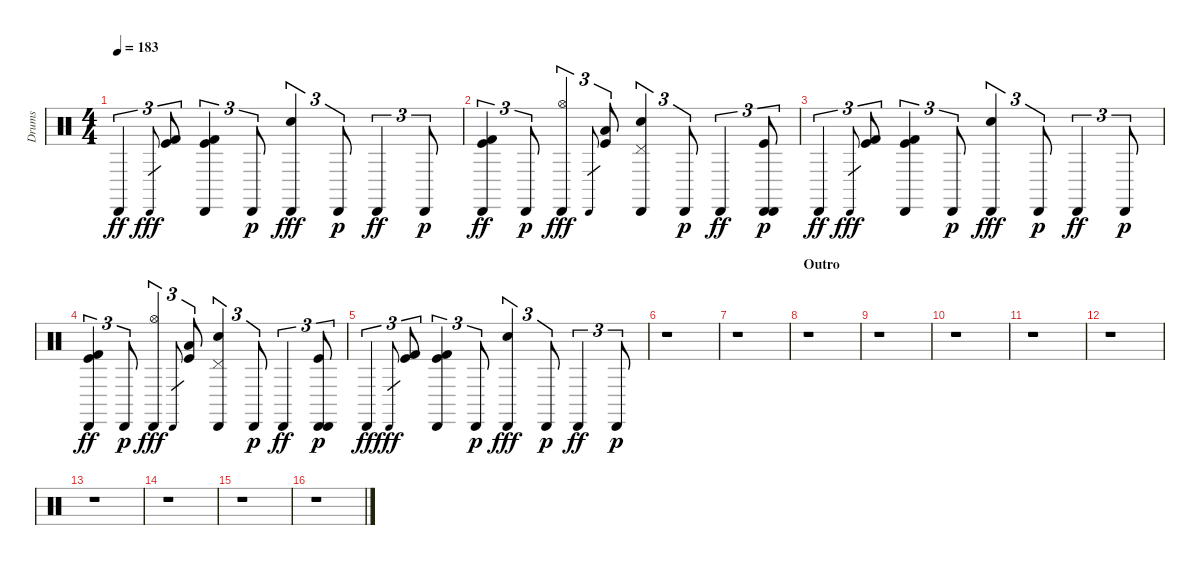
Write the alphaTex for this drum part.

\track ("Drums" "Drums") {instrument percussion}
\staff {score}
\articulation defaults
\ts (4 4)
\tempo 183
\clef neutral
\ks c "Cabasa (hit)".4{tu (3 2) dy ff} "Cabasa (hit)".8{gr dy fff}
("Kick (hit)" "Kick (hit) 2").8{tu (3 2)} ("Cabasa (hit)" "Kick (hit)" "Kick (hit) 2").4{tu (3 2)} "Cabasa (hit)".8{tu (3 2) dy p} ("Cabasa (hit)" "Electric Snare (hit)").4{tu (3 2) dy fff} "Cabasa (hit)".8{tu (3 2) dy p} "Cabasa (hit)".4{tu (3 2) dy ff} "Cabasa (hit)".8{tu (3 2) dy p} |
("Kick (hit) 2" "Kick (hit)" "Cabasa (hit)").4{tu (3 2) dy ff} "Cabasa (hit)".8{tu (3 2) dy p} ("Cabasa (hit)" "Hi-Hat (open)").4{tu (3 2) dy fff} "Cabasa (hit)".8{gr} ("Kick (hit)" "Low Floor Tom (hit)").8{tu (3 2)} ("Cabasa (hit)" "Electric Snare (hit)" "Pedal Hi-Hat (hit)").4{tu (3 2)} "Cabasa (hit)".8{tu (3 2) dy p} "Cabasa (hit)".4{tu (3 2) dy ff} ("Cabasa (hit)" "Kick (hit)" "Cabasa (hit)").8{tu (3 2) dy p} |
"Cabasa (hit)".4{tu (3 2) dy ff} "Cabasa (hit)".8{gr dy fff} ("Kick (hit)" "Kick (hit) 2").8{tu (3 2)} ("Cabasa (hit)" "Kick (hit)" "Kick (hit) 2").4{tu (3 2)} "Cabasa (hit)".8{tu (3 2) dy p} ("Cabasa (hit)" "Electric Snare (hit)").4{tu (3 2) dy fff} "Cabasa (hit)".8{tu (3 2) dy p} "Cabasa (hit)".4{tu (3 2) dy ff} "Cabasa (hit)".8{tu (3 2) dy p} |
("Kick (hit) 2" "Kick (hit)" "Cabasa (hit)").4{tu (3 2) dy ff} "Cabasa (hit)".8{tu (3 2) dy p} ("Cabasa (hit)" "Hi-Hat (open)").4{tu (3 2) dy fff} "Cabasa (hit)".8{gr} ("Kick (hit)" "Low Floor Tom (hit)").8{tu (3 2)} ("Cabasa (hit)" "Electric Snare (hit)" "Pedal Hi-Hat (hit)").4{tu (3 2)} "Cabasa (hit)".8{tu (3 2) dy p} "Cabasa (hit)".4{tu (3 2) dy ff} ("Cabasa (hit)" "Kick (hit)" "Cabasa (hit)").8{tu (3 2) dy p} |
"Cabasa (hit)".4{tu (3 2) dy ff} "Cabasa (hit)".8{gr dy fff} ("Kick (hit)" "Kick (hit) 2").8{tu (3 2)} ("Cabasa (hit)" "Kick (hit)" "Kick (hit) 2").4{tu (3 2)} "Cabasa (hit)".8{tu (3 2) dy p} ("Cabasa (hit)" "Electric Snare (hit)").4{tu (3 2) dy fff} "Cabasa (hit)".8{tu (3 2) dy p} "Cabasa (hit)".4{tu (3 2) dy ff} "Cabasa (hit)".8{tu (3 2) dy p} |
r.1 |
r.1 |
\section ("" "Outro")
r.1 |
r.1 |
r.1 |
r.1 |
r.1 |
r.1 |
r.1 |
r.1 |
r.1
